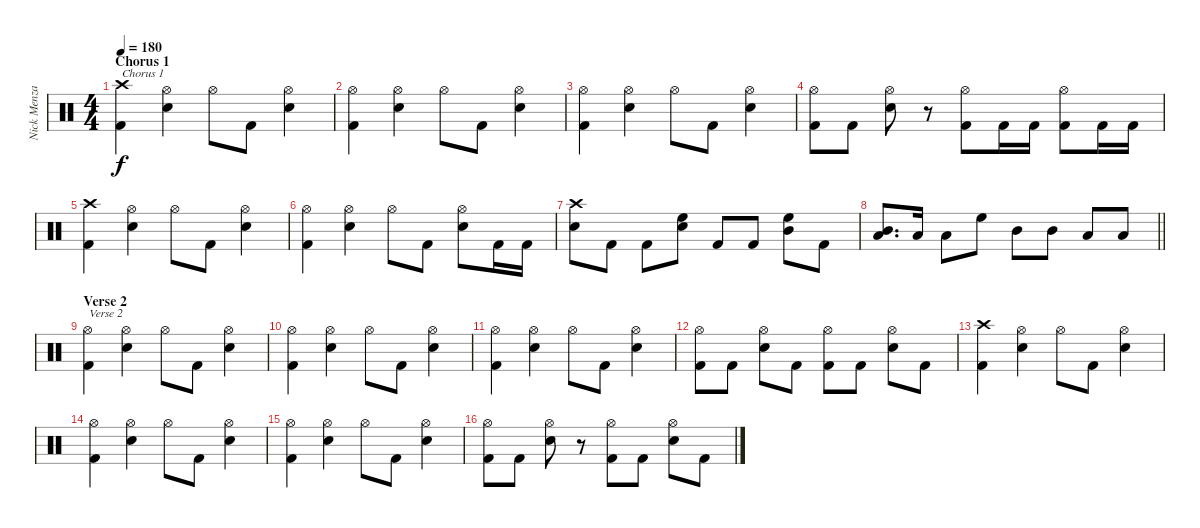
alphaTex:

\track ("Nick Menza" "Nick Menza") {instrument percussion}
\staff {score}
\articulation defaults
\ts (4 4)
\section ("" "Chorus 1")
\tempo 180
\clef neutral
\ks c
("Crash high (hit)" "Kick (hit) 2").4{txt "Chorus 1" dy f} ("Hi-Hat (open)" "Snare (hit) 2").4 "Hi-Hat (open)".8 "Kick (hit) 2".8 ("Hi-Hat (open)" "Snare (hit) 2").4 |
("Hi-Hat (open)" "Kick (hit) 2").4 ("Hi-Hat (open)" "Snare (hit) 2").4 "Hi-Hat (open)".8 "Kick (hit) 2".8 ("Hi-Hat (open)" "Snare (hit) 2").4 |
("Hi-Hat (open)" "Kick (hit) 2").4 ("Hi-Hat (open)" "Snare (hit) 2").4 "Hi-Hat (open)".8 "Kick (hit) 2".8 ("Hi-Hat (open)" "Snare (hit) 2").4 |
("Hi-Hat (open)" "Kick (hit) 2").8 "Kick (hit) 2".8 ("Hi-Hat (open)" "Snare (hit) 2").8 r.8 ("Hi-Hat (open)" "Kick (hit) 2").8 "Kick (hit) 2".16 "Kick (hit) 2".16 ("Hi-Hat (open)" "Kick (hit) 2").8 "Kick (hit) 2".16 "Kick (hit) 2".16 |
("Crash high (hit)" "Kick (hit) 2").4 ("Hi-Hat (open)" "Snare (hit) 2").4 "Hi-Hat (open)".8 "Kick (hit) 2".8 ("Hi-Hat (open)" "Snare (hit) 2").4 |
("Hi-Hat (open)" "Kick (hit) 2").4 ("Hi-Hat (open)" "Snare (hit) 2").4 "Hi-Hat (open)".8 "Kick (hit) 2".8 ("Hi-Hat (open)" "Snare (hit) 2").8 "Kick (hit) 2".16 "Kick (hit) 2".16 |
("Crash high (hit)" "Snare (hit) 2").8 "Kick (hit) 2".8 "Kick (hit) 2".8 ("High Floor Tom (hit)" "Snare (hit) 2").8 "Kick (hit) 2".8 "Kick (hit) 2".8 ("High Floor Tom (hit)" "Mid Tom (hit)").8 "Kick (hit) 2".8 |
\barLineRight lightlight
("Mid Tom (hit)" "Low Tom (hit)").8{d} "Low Tom (hit)".16 "Low Tom (hit)".8 "High Floor Tom (hit)".8 "Mid Tom (hit)".8 "Mid Tom (hit)".8 "Low Tom (hit)".8 "Low Tom (hit)".8 |
\section ("" "Verse 2")
("Hi-Hat (open)" "Kick (hit) 2").4{txt "Verse 2"} ("Hi-Hat (open)" "Snare (hit) 2").4 "Hi-Hat (open)".8 "Kick (hit) 2".8 ("Hi-Hat (open)" "Snare (hit) 2").4 |
("Hi-Hat (open)" "Kick (hit) 2").4 ("Hi-Hat (open)" "Snare (hit) 2").4 "Hi-Hat (open)".8 "Kick (hit) 2".8 ("Hi-Hat (open)" "Snare (hit) 2").4 |
("Hi-Hat (open)" "Kick (hit) 2").4 ("Hi-Hat (open)" "Snare (hit) 2").4 "Hi-Hat (open)".8 "Kick (hit) 2".8 ("Hi-Hat (open)" "Snare (hit) 2").4 |
("Hi-Hat (open)" "Kick (hit) 2").8 "Kick (hit) 2".8 ("Hi-Hat (open)" "Snare (hit) 2").8 "Kick (hit) 2".8 ("Hi-Hat (open)" "Kick (hit) 2").8 "Kick (hit) 2".8 ("Hi-Hat (open)" "Snare (hit) 2").8 "Kick (hit) 2".8 |
("Crash high (hit)" "Kick (hit) 2").4 ("Hi-Hat (open)" "Snare (hit) 2").4 "Hi-Hat (open)".8 "Kick (hit) 2".8 ("Hi-Hat (open)" "Snare (hit) 2").4 |
("Hi-Hat (open)" "Kick (hit) 2").4 ("Hi-Hat (open)" "Snare (hit) 2").4 "Hi-Hat (open)".8 "Kick (hit) 2".8 ("Hi-Hat (open)" "Snare (hit) 2").4 |
("Hi-Hat (open)" "Kick (hit) 2").4 ("Hi-Hat (open)" "Snare (hit) 2").4 "Hi-Hat (open)".8 "Kick (hit) 2".8 ("Hi-Hat (open)" "Snare (hit) 2").4 |
("Hi-Hat (open)" "Kick (hit) 2").8 "Kick (hit) 2".8 ("Hi-Hat (open)" "Snare (hit) 2").8 r.8 ("Hi-Hat (open)" "Kick (hit) 2").8 "Kick (hit) 2".8 ("Hi-Hat (open)" "Snare (hit) 2").8 "Kick (hit) 2".8
